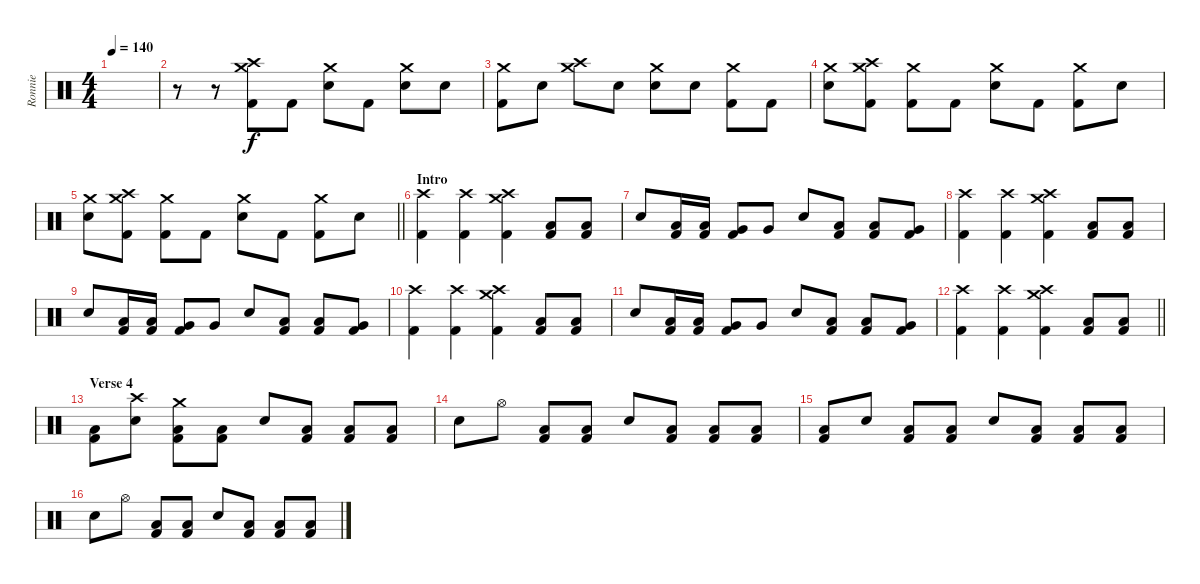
\track ("Ronnie" "Ronnie") {instrument percussion}
\staff {score}
\articulation defaults
\ts (4 4)
\tempo 140
\clef neutral
\ks c
|
r.8 r.8 ("Crash medium (hit)" "Crash high (hit)" "Kick (hit) 2").8 "Kick (hit) 2".8 ("Crash medium (hit)" "Electric Snare (hit)").8 "Kick (hit) 2".8 ("Crash medium (hit)" "Electric Snare (hit)").8 "Electric Snare (hit)".8 |
("Crash medium (hit)" "Kick (hit) 2").8 "Electric Snare (hit)".8 ("Crash high (hit)" "Crash medium (hit)").8 "Electric Snare (hit)".8 ("Crash medium (hit)" "Electric Snare (hit)").8 "Electric Snare (hit)".8 ("Crash medium (hit)" "Kick (hit) 2").8 "Kick (hit) 2".8 |
("Crash medium (hit)" "Electric Snare (hit)").8 ("Crash high (hit)" "Crash medium (hit)" "Kick (hit) 2").8 ("Crash medium (hit)" "Kick (hit) 2").8 "Kick (hit) 2".8 ("Crash medium (hit)" "Electric Snare (hit)").8 "Kick (hit) 2".8 ("Crash medium (hit)" "Kick (hit) 2").8 "Electric Snare (hit)".8 |
\barLineRight lightlight
("Crash medium (hit)" "Electric Snare (hit)").8 ("Crash high (hit)" "Crash medium (hit)" "Kick (hit) 2").8 ("Crash medium (hit)" "Kick (hit) 2").8 "Kick (hit) 2".8 ("Crash medium (hit)" "Electric Snare (hit)").8 "Kick (hit) 2".8 ("Crash medium (hit)" "Kick (hit) 2").8 "Electric Snare (hit)".8 |
\section ("" "Intro")
("Crash high (hit)" "Kick (hit) 2").4 ("Crash high (hit)" "Kick (hit) 2").4 ("Crash medium (hit)" "Crash high (hit)" "Kick (hit) 2").4 ("Low Tom (hit)" "Kick (hit) 2").8 ("Low Tom (hit)" "Kick (hit) 2").8 |
"Electric Snare (hit)".8 ("Low Tom (hit)" "Kick (hit) 2").16 ("Low Tom (hit)" "Kick (hit) 2").16 ("Very Low Tom (hit)" "Kick (hit) 2").8 "Very Low Tom (hit)".8 "Electric Snare (hit)".8 ("Low Tom (hit)" "Kick (hit) 2").8 ("Low Tom (hit)" "Kick (hit) 2").8 ("Very Low Tom (hit)" "Kick (hit) 2").8 |
("Crash high (hit)" "Kick (hit) 2").4 ("Crash high (hit)" "Kick (hit) 2").4 ("Crash medium (hit)" "Crash high (hit)" "Kick (hit) 2").4 ("Low Tom (hit)" "Kick (hit) 2").8 ("Low Tom (hit)" "Kick (hit) 2").8 |
"Electric Snare (hit)".8 ("Low Tom (hit)" "Kick (hit) 2").16 ("Low Tom (hit)" "Kick (hit) 2").16 ("Very Low Tom (hit)" "Kick (hit) 2").8 "Very Low Tom (hit)".8 "Electric Snare (hit)".8 ("Low Tom (hit)" "Kick (hit) 2").8 ("Low Tom (hit)" "Kick (hit) 2").8 ("Very Low Tom (hit)" "Kick (hit) 2").8 |
("Crash high (hit)" "Kick (hit) 2").4 ("Crash high (hit)" "Kick (hit) 2").4 ("Crash medium (hit)" "Crash high (hit)" "Kick (hit) 2").4 ("Low Tom (hit)" "Kick (hit) 2").8 ("Low Tom (hit)" "Kick (hit) 2").8 |
"Electric Snare (hit)".8 ("Low Tom (hit)" "Kick (hit) 2").16 ("Low Tom (hit)" "Kick (hit) 2").16 ("Very Low Tom (hit)" "Kick (hit) 2").8 "Very Low Tom (hit)".8 "Electric Snare (hit)".8 ("Low Tom (hit)" "Kick (hit) 2").8 ("Low Tom (hit)" "Kick (hit) 2").8 ("Very Low Tom (hit)" "Kick (hit) 2").8 |
\barLineRight lightlight
("Crash high (hit)" "Kick (hit) 2").4 ("Crash high (hit)" "Kick (hit) 2").4 ("Crash medium (hit)" "Crash high (hit)" "Kick (hit) 2").4 ("Low Tom (hit)" "Kick (hit) 2").8 ("Low Tom (hit)" "Kick (hit) 2").8 |
\section ("" "Verse 4")
("Low Tom (hit)" "Kick (hit) 2").8 ("Crash high (hit)" "Electric Snare (hit)").8 ("Crash medium (hit)" "Low Tom (hit)" "Kick (hit) 2").8 ("Low Tom (hit)" "Kick (hit) 2").8 "Electric Snare (hit)".8 ("Low Tom (hit)" "Kick (hit) 2").8 ("Low Tom (hit)" "Kick (hit) 2").8 ("Low Tom (hit)" "Kick (hit) 2").8 |
"Electric Snare (hit)".8 "Hi-Hat (open)".8 ("Low Tom (hit)" "Kick (hit) 2").8 ("Low Tom (hit)" "Kick (hit) 2").8 "Electric Snare (hit)".8 ("Low Tom (hit)" "Kick (hit) 2").8 ("Low Tom (hit)" "Kick (hit) 2").8 ("Low Tom (hit)" "Kick (hit) 2").8 |
("Low Tom (hit)" "Kick (hit) 2").8 "Electric Snare (hit)".8 ("Low Tom (hit)" "Kick (hit) 2").8 ("Low Tom (hit)" "Kick (hit) 2").8 "Electric Snare (hit)".8 ("Low Tom (hit)" "Kick (hit) 2").8 ("Low Tom (hit)" "Kick (hit) 2").8 ("Low Tom (hit)" "Kick (hit) 2").8 |
"Electric Snare (hit)".8 "Hi-Hat (open)".8 ("Low Tom (hit)" "Kick (hit) 2").8 ("Low Tom (hit)" "Kick (hit) 2").8 "Electric Snare (hit)".8 ("Low Tom (hit)" "Kick (hit) 2").8 ("Low Tom (hit)" "Kick (hit) 2").8 ("Low Tom (hit)" "Kick (hit) 2").8
